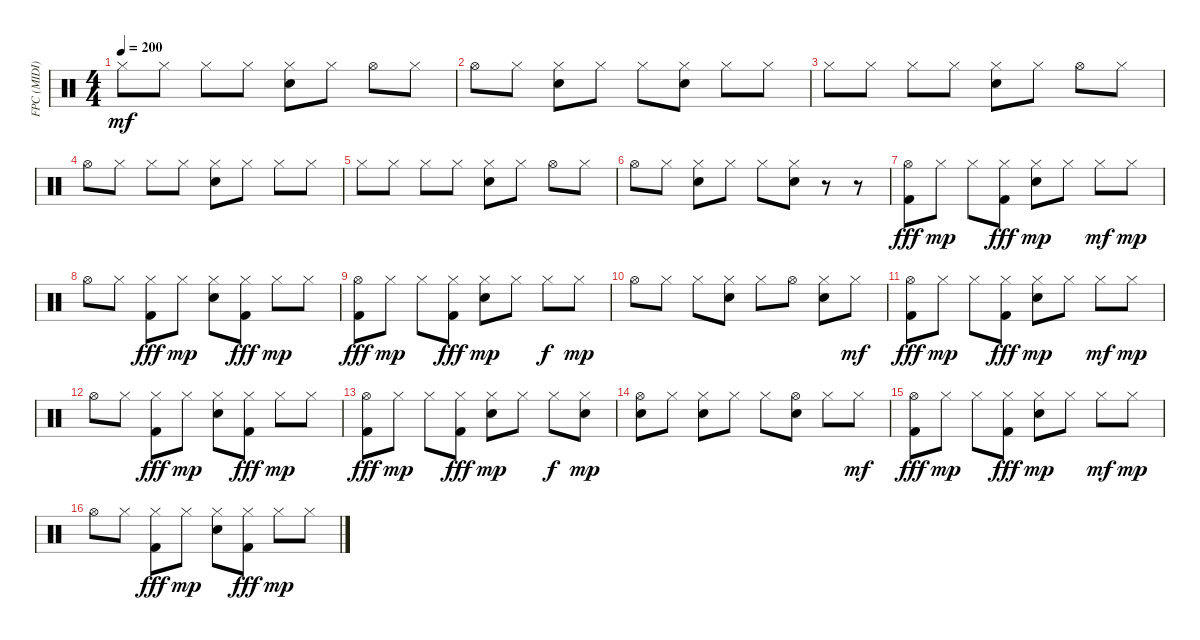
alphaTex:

\track ("FPC (MIDI)" "FPC (MIDI)") {instrument percussion}
\staff {score}
\articulation defaults
\ts (4 4)
\tempo 200
\clef neutral
\ks c "Hi-Hat (closed)".8{dy mf} "Hi-Hat (closed)".8 "Hi-Hat (closed)".8 "Hi-Hat (closed)".8
("Hi-Hat (closed)" "Hand Clap (hit)").8 "Hi-Hat (closed)".8 "Hi-Hat (open)".8 "Hi-Hat (closed)".8 |
"Hi-Hat (open)".8 "Hi-Hat (closed)".8 ("Hi-Hat (closed)" "Hand Clap (hit)").8 "Hi-Hat (closed)".8 "Hi-Hat (closed)".8 ("Hi-Hat (closed)" "Hand Clap (hit)").8 "Hi-Hat (closed)".8 "Hi-Hat (closed)".8 |
"Hi-Hat (closed)".8 "Hi-Hat (closed)".8 "Hi-Hat (closed)".8 "Hi-Hat (closed)".8 ("Hi-Hat (closed)" "Hand Clap (hit)").8 "Hi-Hat (closed)".8 "Hi-Hat (open)".8 "Hi-Hat (closed)".8 |
"Hi-Hat (open)".8 "Hi-Hat (closed)".8 "Hi-Hat (closed)".8 "Hi-Hat (closed)".8 ("Hi-Hat (closed)" "Hand Clap (hit)").8 "Hi-Hat (closed)".8 "Hi-Hat (closed)".8 "Hi-Hat (closed)".8 |
"Hi-Hat (closed)".8 "Hi-Hat (closed)".8 "Hi-Hat (closed)".8 "Hi-Hat (closed)".8 ("Hi-Hat (closed)" "Hand Clap (hit)").8 "Hi-Hat (closed)".8 "Hi-Hat (open)".8 "Hi-Hat (closed)".8 |
"Hi-Hat (open)".8 "Hi-Hat (closed)".8 ("Hi-Hat (closed)" "Hand Clap (hit)").8 "Hi-Hat (closed)".8 "Hi-Hat (closed)".8 ("Hi-Hat (closed)" "Hand Clap (hit)").8 r.8 r.8 |
("Hi-Hat (open)" "Kick (hit) 2").8{dy fff} "Hi-Hat (closed)".8{dy mp} "Hi-Hat (closed)".8 ("Hi-Hat (closed)" "Kick (hit) 2").8{dy fff} ("Hi-Hat (closed)" "Electric Snare (hit)").8{dy mp} "Hi-Hat (closed)".8 "Hi-Hat (closed)".8{dy mf} "Hi-Hat (closed)".8{dy mp} |
"Hi-Hat (open)".8 "Hi-Hat (closed)".8 ("Hi-Hat (closed)" "Kick (hit) 2").8{dy fff} "Hi-Hat (closed)".8{dy mp} ("Hi-Hat (closed)" "Electric Snare (hit)").8 ("Hi-Hat (closed)" "Kick (hit) 2").8{dy fff} "Hi-Hat (closed)".8{dy mp} "Hi-Hat (closed)".8 |
("Hi-Hat (open)" "Kick (hit) 2").8{dy fff} "Hi-Hat (closed)".8{dy mp} "Hi-Hat (closed)".8 ("Hi-Hat (closed)" "Kick (hit) 2").8{dy fff} ("Hi-Hat (closed)" "Electric Snare (hit)").8{dy mp} "Hi-Hat (closed)".8 "Hi-Hat (closed)".8{dy f} "Hi-Hat (closed)".8{dy mp} |
"Hi-Hat (open)".8 "Hi-Hat (closed)".8 "Hi-Hat (closed)".8 ("Hi-Hat (closed)" "Electric Snare (hit)").8 "Hi-Hat (closed)".8 "Hi-Hat (open)".8 ("Hi-Hat (closed)" "Electric Snare (hit)").8 "Hi-Hat (closed)".8{dy mf} |
("Hi-Hat (open)" "Kick (hit) 2").8{dy fff} "Hi-Hat (closed)".8{dy mp} "Hi-Hat (closed)".8 ("Hi-Hat (closed)" "Kick (hit) 2").8{dy fff} ("Hi-Hat (closed)" "Electric Snare (hit)").8{dy mp} "Hi-Hat (closed)".8 "Hi-Hat (closed)".8{dy mf} "Hi-Hat (closed)".8{dy mp} |
"Hi-Hat (open)".8 "Hi-Hat (closed)".8 ("Hi-Hat (closed)" "Kick (hit) 2").8{dy fff} "Hi-Hat (closed)".8{dy mp} ("Hi-Hat (closed)" "Electric Snare (hit)").8 ("Hi-Hat (closed)" "Kick (hit) 2").8{dy fff} "Hi-Hat (closed)".8{dy mp} "Hi-Hat (closed)".8 |
("Hi-Hat (open)" "Kick (hit) 2").8{dy fff} "Hi-Hat (closed)".8{dy mp} "Hi-Hat (closed)".8 ("Hi-Hat (closed)" "Kick (hit) 2").8{dy fff} ("Hi-Hat (closed)" "Electric Snare (hit)").8{dy mp} "Hi-Hat (closed)".8 "Hi-Hat (closed)".8{dy f} ("Hi-Hat (closed)" "Electric Snare (hit)").8{dy mp} |
("Hi-Hat (open)" "Electric Snare (hit)").8 "Hi-Hat (closed)".8 ("Hi-Hat (closed)" "Electric Snare (hit)").8 "Hi-Hat (closed)".8 "Hi-Hat (closed)".8 ("Hi-Hat (open)" "Electric Snare (hit)").8 "Hi-Hat (closed)".8 "Hi-Hat (closed)".8{dy mf} |
("Hi-Hat (open)" "Kick (hit) 2").8{dy fff} "Hi-Hat (closed)".8{dy mp} "Hi-Hat (closed)".8 ("Hi-Hat (closed)" "Kick (hit) 2").8{dy fff} ("Hi-Hat (closed)" "Electric Snare (hit)").8{dy mp} "Hi-Hat (closed)".8 "Hi-Hat (closed)".8{dy mf} "Hi-Hat (closed)".8{dy mp} |
"Hi-Hat (open)".8 "Hi-Hat (closed)".8 ("Hi-Hat (closed)" "Kick (hit) 2").8{dy fff} "Hi-Hat (closed)".8{dy mp} ("Hi-Hat (closed)" "Electric Snare (hit)").8 ("Hi-Hat (closed)" "Kick (hit) 2").8{dy fff} "Hi-Hat (closed)".8{dy mp} "Hi-Hat (closed)".8
